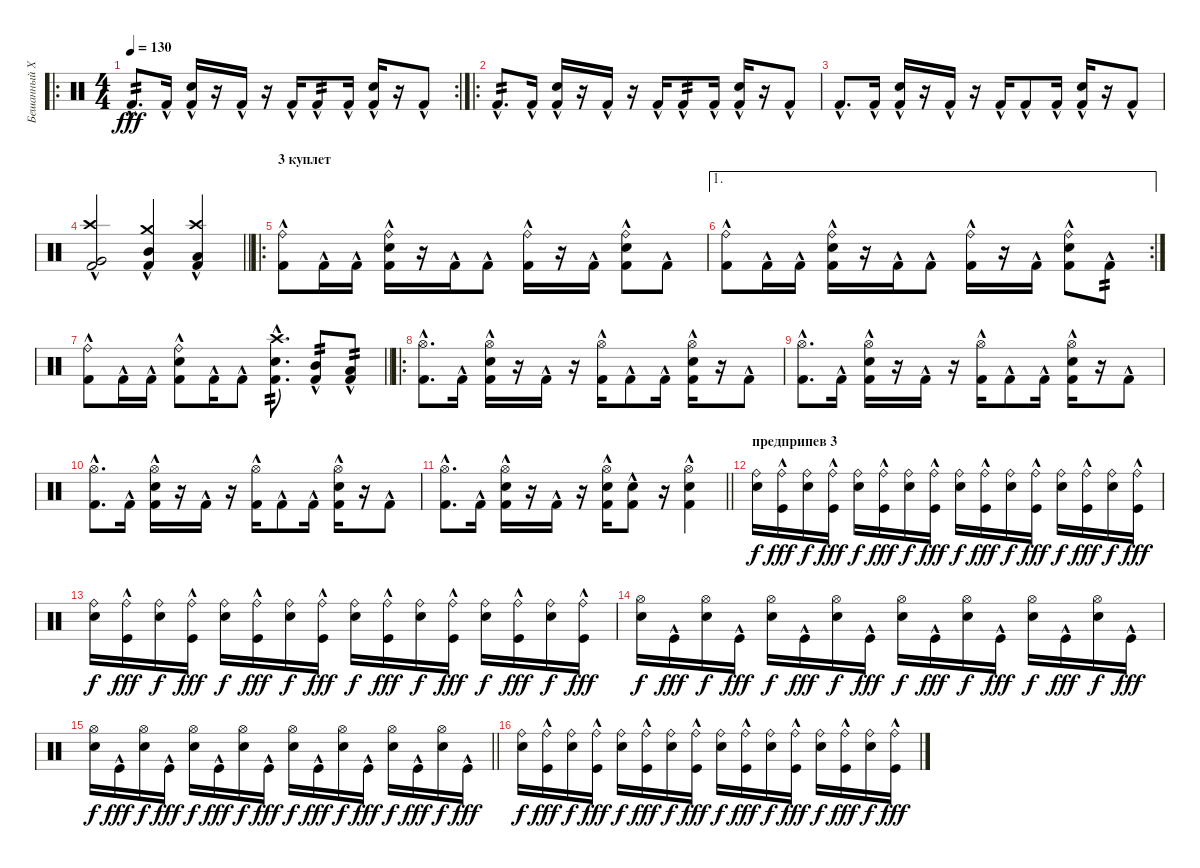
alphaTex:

\track ("Бешанный Харек" "Бешанный Х") {instrument percussion}
\staff {score}
\articulation defaults
\ro
\rc 2
\ts (4 4)
\tempo 130
\clef neutral
\ks c "Kick (hit) 2"{hac}.8{d tp 2 dy fff} "Kick (hit) 2"{hac}.16
("Kick (hit) 2"{hac} "Snare (hit) 2").16 r.16 "Kick (hit) 2"{hac}.16 r.16 "Kick (hit) 2"{hac}.16 "Kick (hit) 2"{hac}.8{tp 2} "Kick (hit) 2"{hac}.16 ("Kick (hit) 2"{hac} "Snare (hit) 2").16 r.16 "Kick (hit) 2"{hac}.8 |
\ro "Kick (hit) 2"{hac}.8{d tp 2} "Kick (hit) 2"{hac}.16
("Kick (hit) 2"{hac} "Snare (hit) 2").16 r.16 "Kick (hit) 2"{hac}.16 r.16 "Kick (hit) 2"{hac}.16 "Kick (hit) 2"{hac}.8{tp 2} "Kick (hit) 2"{hac}.16 ("Kick (hit) 2"{hac} "Snare (hit) 2").16 r.16 "Kick (hit) 2"{hac}.8 |
"Kick (hit) 2"{hac}.8{d} "Kick (hit) 2"{hac}.16 ("Kick (hit) 2"{hac} "Snare (hit) 2").16 r.16 "Kick (hit) 2"{hac}.16 r.16 "Kick (hit) 2"{hac}.16 "Kick (hit) 2"{hac}.8 "Kick (hit) 2"{hac}.16 ("Kick (hit) 2"{hac} "Snare (hit) 2").16 r.16 "Kick (hit) 2"{hac}.8 |
\barLineRight lightlight
("Kick (hit) 2"{hac} "Crash high (hit)" "Very Low Tom (hit)").2 ("Kick (hit) 2"{hac} "Crash medium (hit)" "Mid Tom (hit)").4 ("Kick (hit) 2"{hac} "Crash high (hit)" "Low Tom (hit)").4 |
\ro
\section ("" "3 куплет")
("Kick (hit) 2"{hac} "Ride (bell)").8 "Kick (hit) 2"{hac}.16 "Kick (hit) 2"{hac}.16 ("Kick (hit) 2"{hac} "Snare (hit) 2" "Ride (bell)").16 r.16 "Kick (hit) 2"{hac}.16 "Kick (hit) 2"{hac}.8 ("Kick (hit) 2"{hac} "Ride (bell)").16 r.16 "Kick (hit) 2"{hac}.16 ("Kick (hit) 2"{hac} "Snare (hit) 2" "Ride (bell)").8 "Kick (hit) 2"{hac}.8 |
\ae 1
\rc 2
("Kick (hit) 2"{hac} "Ride (bell)").8 "Kick (hit) 2"{hac}.16 "Kick (hit) 2"{hac}.16 ("Kick (hit) 2"{hac} "Snare (hit) 2" "Ride (bell)").16 r.16 "Kick (hit) 2"{hac}.16 "Kick (hit) 2"{hac}.8 ("Kick (hit) 2"{hac} "Ride (bell)").16 r.16 "Kick (hit) 2"{hac}.16 ("Kick (hit) 2"{hac} "Snare (hit) 2" "Ride (bell)").8 "Kick (hit) 2"{hac}.8{tp 2} |
\barLineRight lightlight
("Kick (hit) 2"{hac} "Ride (bell)").8 "Kick (hit) 2"{hac}.16 "Kick (hit) 2"{hac}.16 ("Kick (hit) 2"{hac} "Snare (hit) 2" "Ride (bell)").8 "Kick (hit) 2"{hac}.16 "Kick (hit) 2"{hac}.8 ("Kick (hit) 2"{hac} "Snare (hit) 2" "Crash high (hit)").8{d tp 2} ("Kick (hit) 2"{hac} "Mid Tom (hit)").8{tp 2} ("Kick (hit) 2"{hac} "Low Tom (hit)").8{tp 2} |
\ro
("Kick (hit) 2"{hac} "Hi-Hat (open)").8{d} "Kick (hit) 2"{hac}.16 ("Kick (hit) 2"{hac} "Snare (hit) 2" "Hi-Hat (open)").16 r.16 "Kick (hit) 2"{hac}.16 r.16 ("Kick (hit) 2"{hac} "Hi-Hat (open)").16 "Kick (hit) 2"{hac}.8 "Kick (hit) 2"{hac}.16 ("Kick (hit) 2"{hac} "Snare (hit) 2" "Hi-Hat (open)").16 r.16 "Kick (hit) 2"{hac}.8 |
("Kick (hit) 2"{hac} "Hi-Hat (open)").8{d} "Kick (hit) 2"{hac}.16 ("Kick (hit) 2"{hac} "Snare (hit) 2" "Hi-Hat (open)").16 r.16 "Kick (hit) 2"{hac}.16 r.16 ("Kick (hit) 2"{hac} "Hi-Hat (open)").16 "Kick (hit) 2"{hac}.8 "Kick (hit) 2"{hac}.16 ("Kick (hit) 2"{hac} "Snare (hit) 2" "Hi-Hat (open)").16 r.16 "Kick (hit) 2"{hac}.8 |
("Kick (hit) 2"{hac} "Hi-Hat (open)").8{d} "Kick (hit) 2"{hac}.16 ("Kick (hit) 2"{hac} "Snare (hit) 2" "Hi-Hat (open)").16 r.16 "Kick (hit) 2"{hac}.16 r.16 ("Kick (hit) 2"{hac} "Hi-Hat (open)").16 "Kick (hit) 2"{hac}.8 "Kick (hit) 2"{hac}.16 ("Kick (hit) 2"{hac} "Snare (hit) 2" "Hi-Hat (open)").16 r.16 "Kick (hit) 2"{hac}.8 |
\barLineRight lightlight
("Kick (hit) 2"{hac} "Hi-Hat (open)").8{d} "Kick (hit) 2"{hac}.16 ("Kick (hit) 2"{hac} "Snare (hit) 2" "Hi-Hat (open)").16 r.16 "Kick (hit) 2"{hac}.16 r.16 ("Kick (hit) 2"{hac} "Snare (hit) 2" "Hi-Hat (open)").16 ("Kick (hit) 2"{hac} "Snare (hit) 2").8 r.16 ("Kick (hit) 2"{hac} "Snare (hit) 2" "Hi-Hat (open)").4 |
\section ("" "предприпев 3")
("Ride (bell)" "Snare (hit) 2").16{dy f} ("Ride (bell)" "Kick (hit)"{hac}).16{dy fff} ("Ride (bell)" "Snare (hit) 2").16{dy f} ("Ride (bell)" "Kick (hit)"{hac}).16{dy fff} ("Ride (bell)" "Snare (hit) 2").16{dy f} ("Ride (bell)" "Kick (hit)"{hac}).16{dy fff} ("Ride (bell)" "Snare (hit) 2").16{dy f} ("Ride (bell)" "Kick (hit)"{hac}).16{dy fff} ("Ride (bell)" "Snare (hit) 2").16{dy f} ("Ride (bell)" "Kick (hit)"{hac}).16{dy fff} ("Ride (bell)" "Snare (hit) 2").16{dy f} ("Ride (bell)" "Kick (hit)"{hac}).16{dy fff} ("Ride (bell)" "Snare (hit) 2").16{dy f} ("Ride (bell)" "Kick (hit)"{hac}).16{dy fff} ("Ride (bell)" "Snare (hit) 2").16{dy f} ("Ride (bell)" "Kick (hit)"{hac}).16{dy fff} |
("Ride (bell)" "Snare (hit) 2").16{dy f} ("Ride (bell)" "Kick (hit)"{hac}).16{dy fff} ("Ride (bell)" "Snare (hit) 2").16{dy f} ("Ride (bell)" "Kick (hit)"{hac}).16{dy fff} ("Ride (bell)" "Snare (hit) 2").16{dy f} ("Ride (bell)" "Kick (hit)"{hac}).16{dy fff} ("Ride (bell)" "Snare (hit) 2").16{dy f} ("Ride (bell)" "Kick (hit)"{hac}).16{dy fff} ("Ride (bell)" "Snare (hit) 2").16{dy f} ("Ride (bell)" "Kick (hit)"{hac}).16{dy fff} ("Ride (bell)" "Snare (hit) 2").16{dy f} ("Ride (bell)" "Kick (hit)"{hac}).16{dy fff} ("Ride (bell)" "Snare (hit) 2").16{dy f} ("Ride (bell)" "Kick (hit)"{hac}).16{dy fff} ("Ride (bell)" "Snare (hit) 2").16{dy f} ("Ride (bell)" "Kick (hit)"{hac}).16{dy fff} |
("Hi-Hat (open)" "Snare (hit) 2").16{dy f} "Kick (hit)"{hac}.16{dy fff} ("Hi-Hat (open)" "Snare (hit) 2").16{dy f} "Kick (hit)"{hac}.16{dy fff} ("Hi-Hat (open)" "Snare (hit) 2").16{dy f} "Kick (hit)"{hac}.16{dy fff} ("Hi-Hat (open)" "Snare (hit) 2").16{dy f} "Kick (hit)"{hac}.16{dy fff} ("Hi-Hat (open)" "Snare (hit) 2").16{dy f} "Kick (hit)"{hac}.16{dy fff} ("Hi-Hat (open)" "Snare (hit) 2").16{dy f} "Kick (hit)"{hac}.16{dy fff} ("Hi-Hat (open)" "Snare (hit) 2").16{dy f} "Kick (hit)"{hac}.16{dy fff} ("Hi-Hat (open)" "Snare (hit) 2").16{dy f} "Kick (hit)"{hac}.16{dy fff} |
\barLineRight lightlight
("Hi-Hat (open)" "Snare (hit) 2").16{dy f} "Kick (hit)"{hac}.16{dy fff} ("Hi-Hat (open)" "Snare (hit) 2").16{dy f} "Kick (hit)"{hac}.16{dy fff} ("Hi-Hat (open)" "Snare (hit) 2").16{dy f} "Kick (hit)"{hac}.16{dy fff} ("Hi-Hat (open)" "Snare (hit) 2").16{dy f} "Kick (hit)"{hac}.16{dy fff} ("Hi-Hat (open)" "Snare (hit) 2").16{dy f} "Kick (hit)"{hac}.16{dy fff} ("Hi-Hat (open)" "Snare (hit) 2").16{dy f} "Kick (hit)"{hac}.16{dy fff} ("Hi-Hat (open)" "Snare (hit) 2").16{dy f} "Kick (hit)"{hac}.16{dy fff} ("Hi-Hat (open)" "Snare (hit) 2").16{dy f} "Kick (hit)"{hac}.16{dy fff} |
("Ride (bell)" "Snare (hit) 2").16{dy f} ("Ride (bell)" "Kick (hit)"{hac}).16{dy fff} ("Ride (bell)" "Snare (hit) 2").16{dy f} ("Ride (bell)" "Kick (hit)"{hac}).16{dy fff} ("Ride (bell)" "Snare (hit) 2").16{dy f} ("Ride (bell)" "Kick (hit)"{hac}).16{dy fff} ("Ride (bell)" "Snare (hit) 2").16{dy f} ("Ride (bell)" "Kick (hit)"{hac}).16{dy fff} ("Ride (bell)" "Snare (hit) 2").16{dy f} ("Ride (bell)" "Kick (hit)"{hac}).16{dy fff} ("Ride (bell)" "Snare (hit) 2").16{dy f} ("Ride (bell)" "Kick (hit)"{hac}).16{dy fff} ("Ride (bell)" "Snare (hit) 2").16{dy f} ("Ride (bell)" "Kick (hit)"{hac}).16{dy fff} ("Ride (bell)" "Snare (hit) 2").16{dy f} ("Ride (bell)" "Kick (hit)"{hac}).16{dy fff}
